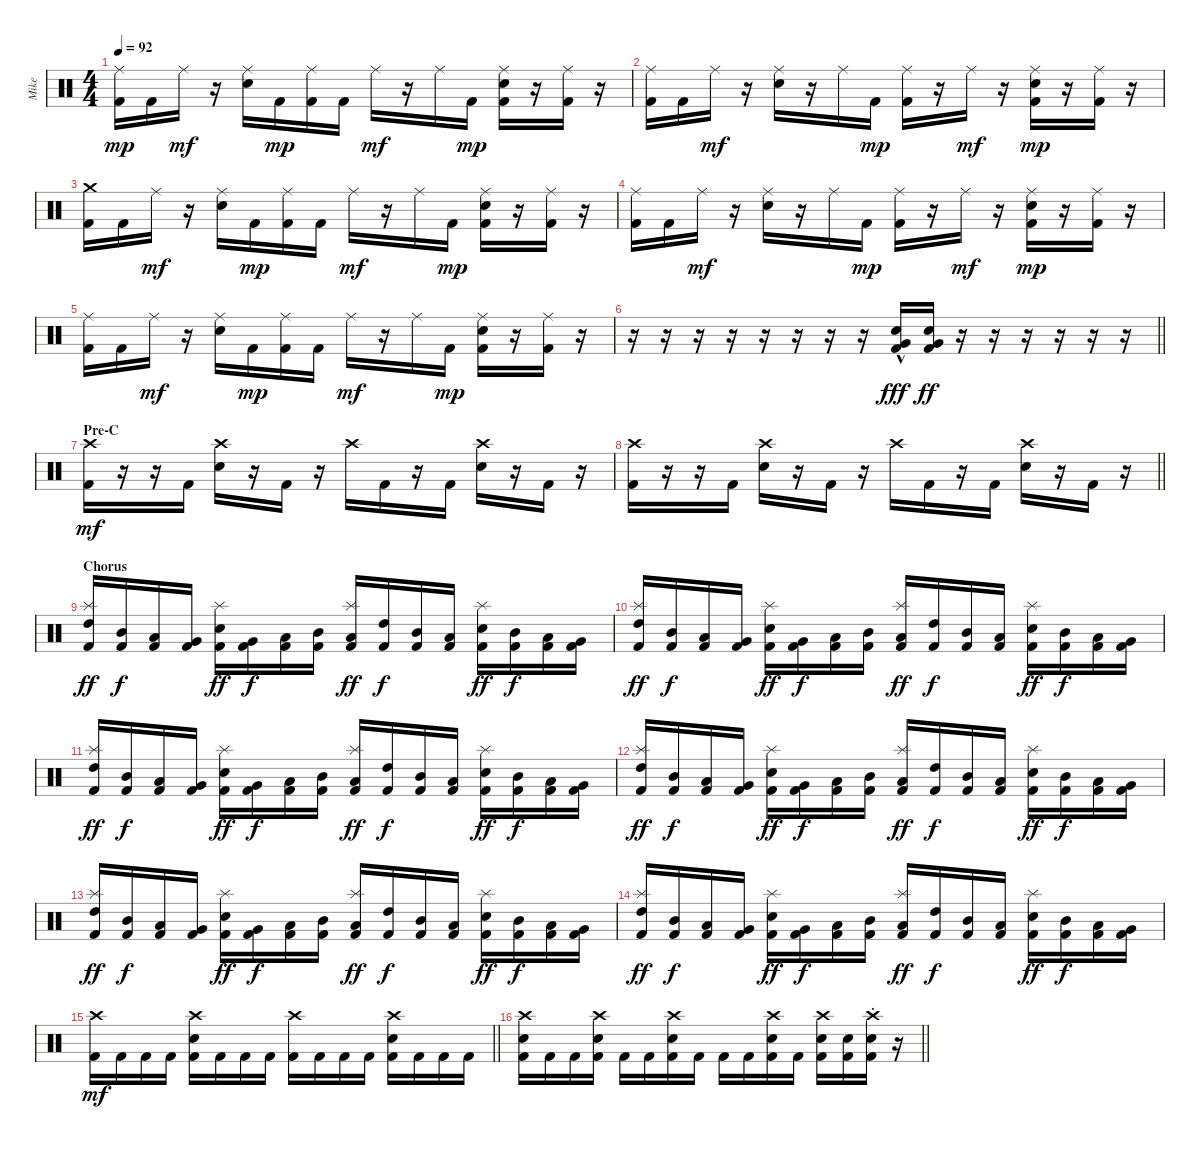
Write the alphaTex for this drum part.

\track ("Mike" "Mike") {instrument percussion}
\staff {score}
\articulation defaults
\ts (4 4)
\tempo 92
\clef neutral
\ks c
("Ride (middle)" "Kick (hit) 2").16{dy mp} "Kick (hit) 2".16 "Ride (middle)".16{dy mf} r.16 ("Ride (middle)" "Snare (hit) 2").16 "Kick (hit) 2".16{dy mp} ("Ride (middle)" "Kick (hit) 2").16 "Kick (hit) 2".16 "Ride (middle)".16{dy mf} r.16 "Ride (middle)".16 "Kick (hit) 2".16{dy mp} ("Ride (middle)" "Snare (hit) 2" "Kick (hit) 2").16 r.16 ("Ride (middle)" "Kick (hit) 2").16 r.16 |
("Ride (middle)" "Kick (hit) 2").16 "Kick (hit) 2".16 "Ride (middle)".16{dy mf} r.16 ("Ride (middle)" "Snare (hit) 2").16 r.16 "Ride (middle)".16 "Kick (hit) 2".16{dy mp} ("Ride (middle)" "Kick (hit) 2").16 r.16 "Ride (middle)".16{dy mf} r.16 ("Ride (middle)" "Snare (hit) 2" "Kick (hit) 2").16{dy mp} r.16 ("Ride (middle)" "Kick (hit) 2").16 r.16 |
("Crash medium (hit)" "Kick (hit) 2").16 "Kick (hit) 2".16 "Ride (middle)".16{dy mf} r.16 ("Ride (middle)" "Snare (hit) 2").16 "Kick (hit) 2".16{dy mp} ("Ride (middle)" "Kick (hit) 2").16 "Kick (hit) 2".16 "Ride (middle)".16{dy mf} r.16 "Ride (middle)".16 "Kick (hit) 2".16{dy mp} ("Ride (middle)" "Snare (hit) 2" "Kick (hit) 2").16 r.16 ("Ride (middle)" "Kick (hit) 2").16 r.16 |
("Ride (middle)" "Kick (hit) 2").16 "Kick (hit) 2".16 "Ride (middle)".16{dy mf} r.16 ("Ride (middle)" "Snare (hit) 2").16 r.16 "Ride (middle)".16 "Kick (hit) 2".16{dy mp} ("Ride (middle)" "Kick (hit) 2").16 r.16 "Ride (middle)".16{dy mf} r.16 ("Ride (middle)" "Snare (hit) 2" "Kick (hit) 2").16{dy mp} r.16 ("Ride (middle)" "Kick (hit) 2").16 r.16 |
("Ride (middle)" "Kick (hit) 2").16 "Kick (hit) 2".16 "Ride (middle)".16{dy mf} r.16 ("Ride (middle)" "Snare (hit) 2").16 "Kick (hit) 2".16{dy mp} ("Ride (middle)" "Kick (hit) 2").16 "Kick (hit) 2".16 "Ride (middle)".16{dy mf} r.16 "Ride (middle)".16 "Kick (hit) 2".16{dy mp} ("Ride (middle)" "Snare (hit) 2" "Kick (hit) 2").16 r.16 ("Ride (middle)" "Kick (hit) 2").16 r.16 |
\barLineRight lightlight
r.16 r.16 r.16 r.16 r.16 r.16 r.16 r.16 ("Very Low Tom (hit)"{hac} "Snare (hit) 2"{hac} "Kick (hit) 2"{hac}).16{dy fff} ("Very Low Tom (hit)" "Snare (hit) 2" "Kick (hit) 2").16{dy ff} r.16 r.16 r.16 r.16 r.16 r.16 |
\section ("" "Pre-C")
("Crash high (hit)" "Kick (hit) 2").16{dy mf} r.16 r.16 "Kick (hit) 2".16 ("Crash high (hit)" "Snare (hit) 2").16 r.16 "Kick (hit) 2".16 r.16 "Crash high (hit)".16 "Kick (hit) 2".16 r.16 "Kick (hit) 2".16 ("Crash high (hit)" "Snare (hit) 2").16 r.16 "Kick (hit) 2".16 r.16 |
\barLineRight lightlight
("Crash high (hit)" "Kick (hit) 2").16 r.16 r.16 "Kick (hit) 2".16 ("Crash high (hit)" "Snare (hit) 2").16 r.16 "Kick (hit) 2".16 r.16 "Crash high (hit)".16 "Kick (hit) 2".16 r.16 "Kick (hit) 2".16 ("Crash high (hit)" "Snare (hit) 2").16 r.16 "Kick (hit) 2".16 r.16 |
\section ("" "Chorus")
("Splash (hit)" "High Tom (hit)" "Kick (hit) 2").16{dy ff} ("Mid Tom (hit)" "Kick (hit) 2").16{dy f} ("Low Tom (hit)" "Kick (hit) 2").16 ("Very Low Tom (hit)" "Kick (hit) 2").16 ("Splash (hit)" "Snare (hit) 2" "Kick (hit) 2").16{dy ff} ("Very Low Tom (hit)" "Kick (hit) 2").16{dy f} ("Low Tom (hit)" "Kick (hit) 2").16 ("Mid Tom (hit)" "Kick (hit) 2").16 ("Splash (hit)" "Low Tom (hit)" "Kick (hit) 2").16{dy ff} ("High Tom (hit)" "Kick (hit) 2").16{dy f} ("Mid Tom (hit)" "Kick (hit) 2").16 ("Low Tom (hit)" "Kick (hit) 2").16 ("Splash (hit)" "Snare (hit) 2" "Kick (hit) 2").16{dy ff} ("Mid Tom (hit)" "Kick (hit) 2").16{dy f} ("Low Tom (hit)" "Kick (hit) 2").16 ("Very Low Tom (hit)" "Kick (hit) 2").16 |
("Splash (hit)" "High Tom (hit)" "Kick (hit) 2").16{dy ff} ("Mid Tom (hit)" "Kick (hit) 2").16{dy f} ("Low Tom (hit)" "Kick (hit) 2").16 ("Very Low Tom (hit)" "Kick (hit) 2").16 ("Splash (hit)" "Snare (hit) 2" "Kick (hit) 2").16{dy ff} ("Very Low Tom (hit)" "Kick (hit) 2").16{dy f} ("Low Tom (hit)" "Kick (hit) 2").16 ("Mid Tom (hit)" "Kick (hit) 2").16 ("Splash (hit)" "Low Tom (hit)" "Kick (hit) 2").16{dy ff} ("High Tom (hit)" "Kick (hit) 2").16{dy f} ("Mid Tom (hit)" "Kick (hit) 2").16 ("Low Tom (hit)" "Kick (hit) 2").16 ("Splash (hit)" "Snare (hit) 2" "Kick (hit) 2").16{dy ff} ("Mid Tom (hit)" "Kick (hit) 2").16{dy f} ("Low Tom (hit)" "Kick (hit) 2").16 ("Very Low Tom (hit)" "Kick (hit) 2").16 |
("Splash (hit)" "High Tom (hit)" "Kick (hit) 2").16{dy ff} ("Mid Tom (hit)" "Kick (hit) 2").16{dy f} ("Low Tom (hit)" "Kick (hit) 2").16 ("Very Low Tom (hit)" "Kick (hit) 2").16 ("Splash (hit)" "Snare (hit) 2" "Kick (hit) 2").16{dy ff} ("Very Low Tom (hit)" "Kick (hit) 2").16{dy f} ("Low Tom (hit)" "Kick (hit) 2").16 ("Mid Tom (hit)" "Kick (hit) 2").16 ("Splash (hit)" "Low Tom (hit)" "Kick (hit) 2").16{dy ff} ("High Tom (hit)" "Kick (hit) 2").16{dy f} ("Mid Tom (hit)" "Kick (hit) 2").16 ("Low Tom (hit)" "Kick (hit) 2").16 ("Splash (hit)" "Snare (hit) 2" "Kick (hit) 2").16{dy ff} ("Mid Tom (hit)" "Kick (hit) 2").16{dy f} ("Low Tom (hit)" "Kick (hit) 2").16 ("Very Low Tom (hit)" "Kick (hit) 2").16 |
("Splash (hit)" "High Tom (hit)" "Kick (hit) 2").16{dy ff} ("Mid Tom (hit)" "Kick (hit) 2").16{dy f} ("Low Tom (hit)" "Kick (hit) 2").16 ("Very Low Tom (hit)" "Kick (hit) 2").16 ("Splash (hit)" "Snare (hit) 2" "Kick (hit) 2").16{dy ff} ("Very Low Tom (hit)" "Kick (hit) 2").16{dy f} ("Low Tom (hit)" "Kick (hit) 2").16 ("Mid Tom (hit)" "Kick (hit) 2").16 ("Splash (hit)" "Low Tom (hit)" "Kick (hit) 2").16{dy ff} ("High Tom (hit)" "Kick (hit) 2").16{dy f} ("Mid Tom (hit)" "Kick (hit) 2").16 ("Low Tom (hit)" "Kick (hit) 2").16 ("Splash (hit)" "Snare (hit) 2" "Kick (hit) 2").16{dy ff} ("Mid Tom (hit)" "Kick (hit) 2").16{dy f} ("Low Tom (hit)" "Kick (hit) 2").16 ("Very Low Tom (hit)" "Kick (hit) 2").16 |
("Splash (hit)" "High Tom (hit)" "Kick (hit) 2").16{dy ff} ("Mid Tom (hit)" "Kick (hit) 2").16{dy f} ("Low Tom (hit)" "Kick (hit) 2").16 ("Very Low Tom (hit)" "Kick (hit) 2").16 ("Splash (hit)" "Snare (hit) 2" "Kick (hit) 2").16{dy ff} ("Very Low Tom (hit)" "Kick (hit) 2").16{dy f} ("Low Tom (hit)" "Kick (hit) 2").16 ("Mid Tom (hit)" "Kick (hit) 2").16 ("Splash (hit)" "Low Tom (hit)" "Kick (hit) 2").16{dy ff} ("High Tom (hit)" "Kick (hit) 2").16{dy f} ("Mid Tom (hit)" "Kick (hit) 2").16 ("Low Tom (hit)" "Kick (hit) 2").16 ("Splash (hit)" "Snare (hit) 2" "Kick (hit) 2").16{dy ff} ("Mid Tom (hit)" "Kick (hit) 2").16{dy f} ("Low Tom (hit)" "Kick (hit) 2").16 ("Very Low Tom (hit)" "Kick (hit) 2").16 |
("Splash (hit)" "High Tom (hit)" "Kick (hit) 2").16{dy ff} ("Mid Tom (hit)" "Kick (hit) 2").16{dy f} ("Low Tom (hit)" "Kick (hit) 2").16 ("Very Low Tom (hit)" "Kick (hit) 2").16 ("Splash (hit)" "Snare (hit) 2" "Kick (hit) 2").16{dy ff} ("Very Low Tom (hit)" "Kick (hit) 2").16{dy f} ("Low Tom (hit)" "Kick (hit) 2").16 ("Mid Tom (hit)" "Kick (hit) 2").16 ("Splash (hit)" "Low Tom (hit)" "Kick (hit) 2").16{dy ff} ("High Tom (hit)" "Kick (hit) 2").16{dy f} ("Mid Tom (hit)" "Kick (hit) 2").16 ("Low Tom (hit)" "Kick (hit) 2").16 ("Splash (hit)" "Snare (hit) 2" "Kick (hit) 2").16{dy ff} ("Mid Tom (hit)" "Kick (hit) 2").16{dy f} ("Low Tom (hit)" "Kick (hit) 2").16 ("Very Low Tom (hit)" "Kick (hit) 2").16 |
\barLineRight lightlight
("Crash high (hit)" "Kick (hit) 2").16{dy mf} "Kick (hit) 2".16 "Kick (hit) 2".16 "Kick (hit) 2".16 ("Crash high (hit)" "Snare (hit) 2" "Kick (hit) 2").16 "Kick (hit) 2".16 "Kick (hit) 2".16 "Kick (hit) 2".16 ("Crash high (hit)" "Kick (hit) 2").16 "Kick (hit) 2".16 "Kick (hit) 2".16 "Kick (hit) 2".16 ("Crash high (hit)" "Snare (hit) 2" "Kick (hit) 2").16 "Kick (hit) 2".16 "Kick (hit) 2".16 "Kick (hit) 2".16 |
\barLineRight lightlight
("Crash high (hit)" "Snare (hit) 2" "Kick (hit) 2").16 "Kick (hit) 2".16 "Kick (hit) 2".16 ("Crash high (hit)" "Snare (hit) 2" "Kick (hit) 2").16 "Kick (hit) 2".16 "Kick (hit) 2".16 ("Crash high (hit)" "Snare (hit) 2" "Kick (hit) 2").16 "Kick (hit) 2".16 "Kick (hit) 2".16 "Kick (hit) 2".16 ("Crash high (hit)" "Snare (hit) 2" "Kick (hit) 2").16 "Kick (hit) 2".16 ("Crash high (hit)" "Snare (hit) 2" "Kick (hit) 2").16 ("Snare (hit) 2" "Kick (hit) 2").16 ("Crash high (hit)"{st} "Snare (hit) 2" "Kick (hit) 2").16 r.16
